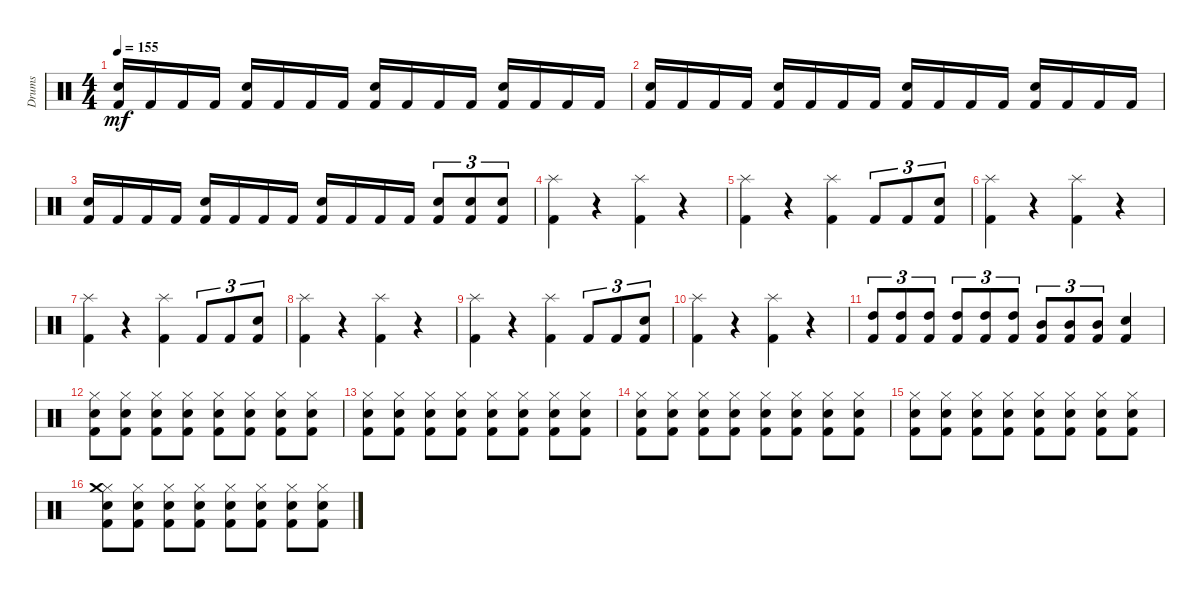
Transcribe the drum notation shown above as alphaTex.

\track ("Drums" "Drums") {instrument percussion}
\staff {score}
\articulation defaults
\ts (4 4)
\tempo 155
\clef neutral
\ks c
("Kick (hit) 2" "Snare (hit) 2").16{dy mf} "Kick (hit) 2".16 "Kick (hit) 2".16 "Kick (hit) 2".16 ("Kick (hit) 2" "Snare (hit) 2").16 "Kick (hit) 2".16 "Kick (hit) 2".16 "Kick (hit) 2".16 ("Kick (hit) 2" "Snare (hit) 2").16 "Kick (hit) 2".16 "Kick (hit) 2".16 "Kick (hit) 2".16 ("Kick (hit) 2" "Snare (hit) 2").16 "Kick (hit) 2".16 "Kick (hit) 2".16 "Kick (hit) 2".16 |
("Kick (hit) 2" "Snare (hit) 2").16 "Kick (hit) 2".16 "Kick (hit) 2".16 "Kick (hit) 2".16 ("Kick (hit) 2" "Snare (hit) 2").16 "Kick (hit) 2".16 "Kick (hit) 2".16 "Kick (hit) 2".16 ("Kick (hit) 2" "Snare (hit) 2").16 "Kick (hit) 2".16 "Kick (hit) 2".16 "Kick (hit) 2".16 ("Kick (hit) 2" "Snare (hit) 2").16 "Kick (hit) 2".16 "Kick (hit) 2".16 "Kick (hit) 2".16 |
("Kick (hit) 2" "Snare (hit) 2").16 "Kick (hit) 2".16 "Kick (hit) 2".16 "Kick (hit) 2".16 ("Kick (hit) 2" "Snare (hit) 2").16 "Kick (hit) 2".16 "Kick (hit) 2".16 "Kick (hit) 2".16 ("Kick (hit) 2" "Snare (hit) 2").16 "Kick (hit) 2".16 "Kick (hit) 2".16 "Kick (hit) 2".16 ("Kick (hit) 2" "Snare (hit) 2").8{tu (3 2)} ("Kick (hit) 2" "Snare (hit) 2").8{tu (3 2)} ("Kick (hit) 2" "Snare (hit) 2").8{tu (3 2)} |
("Kick (hit) 2" "Splash (hit)").4 r.4 ("Kick (hit) 2" "Splash (hit)").4 r.4 |
("Kick (hit) 2" "Splash (hit)").4 r.4 ("Kick (hit) 2" "Splash (hit)").4 "Kick (hit) 2".8{tu (3 2)} "Kick (hit) 2".8{tu (3 2)} ("Kick (hit) 2" "Snare (hit) 2").8{tu (3 2)} |
("Kick (hit) 2" "Splash (hit)").4 r.4 ("Kick (hit) 2" "Splash (hit)").4 r.4 |
("Kick (hit) 2" "Splash (hit)").4 r.4 ("Kick (hit) 2" "Splash (hit)").4 "Kick (hit) 2".8{tu (3 2)} "Kick (hit) 2".8{tu (3 2)} ("Kick (hit) 2" "Snare (hit) 2").8{tu (3 2)} |
("Kick (hit) 2" "Splash (hit)").4 r.4 ("Kick (hit) 2" "Splash (hit)").4 r.4 |
("Kick (hit) 2" "Splash (hit)").4 r.4 ("Kick (hit) 2" "Splash (hit)").4 "Kick (hit) 2".8{tu (3 2)} "Kick (hit) 2".8{tu (3 2)} ("Kick (hit) 2" "Snare (hit) 2").8{tu (3 2)} |
("Kick (hit) 2" "Splash (hit)").4 r.4 ("Kick (hit) 2" "Splash (hit)").4 r.4 |
("Kick (hit) 2" "High Tom (hit)").8{tu (3 2)} ("Kick (hit) 2" "High Tom (hit)").8{tu (3 2)} ("Kick (hit) 2" "High Tom (hit)").8{tu (3 2)} ("Kick (hit) 2" "High Tom (hit)").8{tu (3 2)} ("Kick (hit) 2" "High Tom (hit)").8{tu (3 2)} ("Kick (hit) 2" "High Tom (hit)").8{tu (3 2)} ("Kick (hit) 2" "Mid Tom (hit)").8{tu (3 2)} ("Kick (hit) 2" "Mid Tom (hit)").8{tu (3 2)} ("Kick (hit) 2" "Mid Tom (hit)").8{tu (3 2)} ("Kick (hit) 2" "Snare (hit) 2").4 |
("Kick (hit) 2" "Snare (hit) 2" "Hi-Hat (closed)").8 ("Kick (hit) 2" "Snare (hit) 2" "Hi-Hat (closed)").8 ("Kick (hit) 2" "Snare (hit) 2" "Hi-Hat (closed)").8 ("Kick (hit) 2" "Snare (hit) 2" "Hi-Hat (closed)").8 ("Kick (hit) 2" "Snare (hit) 2" "Hi-Hat (closed)").8 ("Kick (hit) 2" "Snare (hit) 2" "Hi-Hat (closed)").8 ("Kick (hit) 2" "Snare (hit) 2" "Hi-Hat (closed)").8 ("Kick (hit) 2" "Snare (hit) 2" "Hi-Hat (closed)").8 |
("Kick (hit) 2" "Snare (hit) 2" "Hi-Hat (closed)").8 ("Kick (hit) 2" "Snare (hit) 2" "Hi-Hat (closed)").8 ("Kick (hit) 2" "Snare (hit) 2" "Hi-Hat (closed)").8 ("Kick (hit) 2" "Snare (hit) 2" "Hi-Hat (closed)").8 ("Kick (hit) 2" "Snare (hit) 2" "Hi-Hat (closed)").8 ("Kick (hit) 2" "Snare (hit) 2" "Hi-Hat (closed)").8 ("Kick (hit) 2" "Snare (hit) 2" "Hi-Hat (closed)").8 ("Kick (hit) 2" "Snare (hit) 2" "Hi-Hat (closed)").8 |
("Kick (hit) 2" "Snare (hit) 2" "Hi-Hat (closed)").8 ("Kick (hit) 2" "Snare (hit) 2" "Hi-Hat (closed)").8 ("Kick (hit) 2" "Snare (hit) 2" "Hi-Hat (closed)").8 ("Kick (hit) 2" "Snare (hit) 2" "Hi-Hat (closed)").8 ("Kick (hit) 2" "Snare (hit) 2" "Hi-Hat (closed)").8 ("Kick (hit) 2" "Snare (hit) 2" "Hi-Hat (closed)").8 ("Kick (hit) 2" "Snare (hit) 2" "Hi-Hat (closed)").8 ("Kick (hit) 2" "Snare (hit) 2" "Hi-Hat (closed)").8 |
("Kick (hit) 2" "Snare (hit) 2" "Hi-Hat (closed)").8 ("Kick (hit) 2" "Snare (hit) 2" "Hi-Hat (closed)").8 ("Kick (hit) 2" "Snare (hit) 2" "Hi-Hat (closed)").8 ("Kick (hit) 2" "Snare (hit) 2" "Hi-Hat (closed)").8 ("Kick (hit) 2" "Snare (hit) 2" "Hi-Hat (closed)").8 ("Kick (hit) 2" "Snare (hit) 2" "Hi-Hat (closed)").8 ("Kick (hit) 2" "Snare (hit) 2" "Hi-Hat (closed)").8 ("Kick (hit) 2" "Snare (hit) 2" "Hi-Hat (closed)").8 |
("Kick (hit) 2" "Snare (hit) 2" "Hi-Hat (closed)" "Crash medium (hit)").8 ("Kick (hit) 2" "Snare (hit) 2" "Hi-Hat (closed)").8 ("Kick (hit) 2" "Snare (hit) 2" "Hi-Hat (closed)").8 ("Kick (hit) 2" "Snare (hit) 2" "Hi-Hat (closed)").8 ("Kick (hit) 2" "Snare (hit) 2" "Hi-Hat (closed)").8 ("Kick (hit) 2" "Snare (hit) 2" "Hi-Hat (closed)").8 ("Kick (hit) 2" "Snare (hit) 2" "Hi-Hat (closed)").8 ("Kick (hit) 2" "Snare (hit) 2" "Hi-Hat (closed)").8
